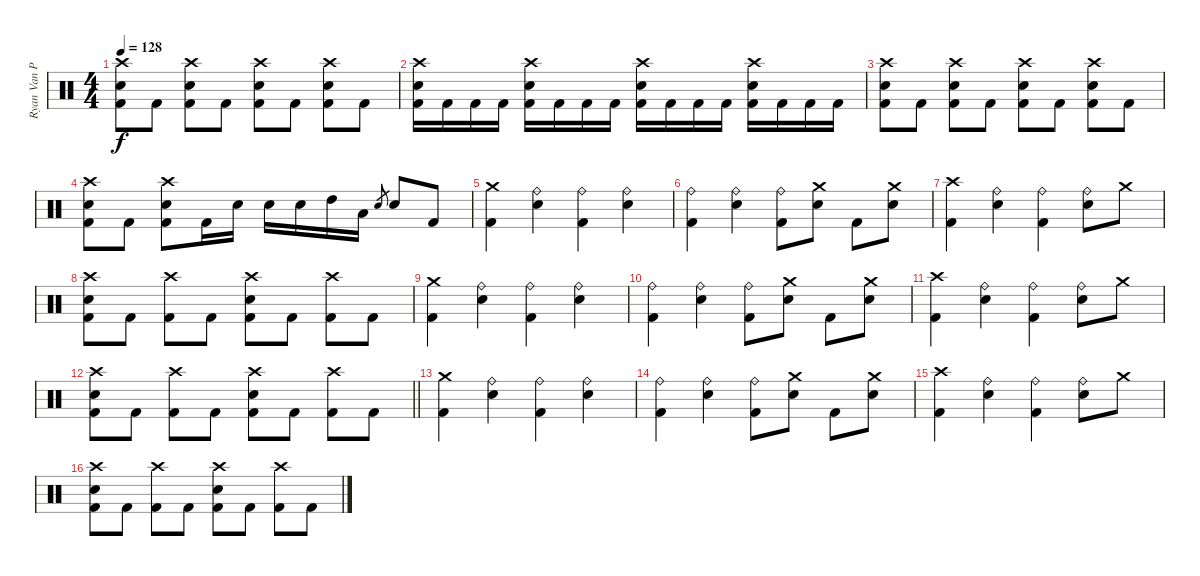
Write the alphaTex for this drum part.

\track ("Ryan Van Poederooyen" "Ryan Van P") {instrument percussion}
\staff {score}
\articulation defaults
\ts (4 4)
\tempo 128
\clef neutral
\ks c
("Crash high (hit)" "Electric Snare (hit)" "Kick (hit) 2").8{dy f} "Kick (hit) 2".8 ("Crash high (hit)" "Electric Snare (hit)" "Kick (hit) 2").8 "Kick (hit) 2".8 ("Crash high (hit)" "Electric Snare (hit)" "Kick (hit) 2").8 "Kick (hit) 2".8 ("Crash high (hit)" "Electric Snare (hit)" "Kick (hit) 2").8 "Kick (hit) 2".8 |
("Crash high (hit)" "Electric Snare (hit)" "Kick (hit) 2").16 "Kick (hit) 2".16 "Kick (hit) 2".16 "Kick (hit) 2".16 ("Crash high (hit)" "Electric Snare (hit)" "Kick (hit) 2").16 "Kick (hit) 2".16 "Kick (hit) 2".16 "Kick (hit) 2".16 ("Crash high (hit)" "Electric Snare (hit)" "Kick (hit) 2").16 "Kick (hit) 2".16 "Kick (hit) 2".16 "Kick (hit) 2".16 ("Crash high (hit)" "Electric Snare (hit)" "Kick (hit) 2").16 "Kick (hit) 2".16 "Kick (hit) 2".16 "Kick (hit) 2".16 |
("Crash high (hit)" "Electric Snare (hit)" "Kick (hit) 2").8 "Kick (hit) 2".8 ("Crash high (hit)" "Electric Snare (hit)" "Kick (hit) 2").8 "Kick (hit) 2".8 ("Crash high (hit)" "Electric Snare (hit)" "Kick (hit) 2").8 "Kick (hit) 2".8 ("Crash high (hit)" "Electric Snare (hit)" "Kick (hit) 2").8 "Kick (hit) 2".8 |
("Crash high (hit)" "Electric Snare (hit)" "Kick (hit) 2").8 "Kick (hit) 2".8 ("Crash high (hit)" "Electric Snare (hit)" "Kick (hit) 2").8 "Kick (hit) 2".16 "Electric Snare (hit)".16 "Electric Snare (hit)".16 "Electric Snare (hit)".16 "High Tom (hit)".16 "Low Tom (hit)".16 "Electric Snare (hit)".8{gr} "Electric Snare (hit)".8 "Kick (hit) 2".8 |
("Crash medium (hit)" "Kick (hit) 2").4 ("Ride (bell)" "Electric Snare (hit)").4 ("Ride (bell)" "Kick (hit) 2").4 ("Ride (bell)" "Electric Snare (hit)").4 |
("Ride (bell)" "Kick (hit) 2").4 ("Ride (bell)" "Electric Snare (hit)").4 ("Ride (bell)" "Kick (hit) 2").8 ("Crash medium (hit)" "Electric Snare (hit)").8 "Kick (hit) 2".8 ("Crash medium (hit)" "Electric Snare (hit)").8 |
("Crash high (hit)" "Kick (hit) 2").4 ("Ride (bell)" "Electric Snare (hit)").4 ("Ride (bell)" "Kick (hit) 2").4 ("Ride (bell)" "Electric Snare (hit)").8 "Crash medium (hit)".8 |
("Crash high (hit)" "Electric Snare (hit)" "Kick (hit) 2").8 "Kick (hit) 2".8 ("Crash high (hit)" "Kick (hit) 2").8 "Kick (hit) 2".8 ("Crash high (hit)" "Electric Snare (hit)" "Kick (hit) 2").8 "Kick (hit) 2".8 ("Crash high (hit)" "Kick (hit) 2").8 "Kick (hit) 2".8 |
("Crash medium (hit)" "Kick (hit) 2").4 ("Ride (bell)" "Electric Snare (hit)").4 ("Ride (bell)" "Kick (hit) 2").4 ("Ride (bell)" "Electric Snare (hit)").4 |
("Ride (bell)" "Kick (hit) 2").4 ("Ride (bell)" "Electric Snare (hit)").4 ("Ride (bell)" "Kick (hit) 2").8 ("Crash medium (hit)" "Electric Snare (hit)").8 "Kick (hit) 2".8 ("Crash medium (hit)" "Electric Snare (hit)").8 |
("Crash high (hit)" "Kick (hit) 2").4 ("Ride (bell)" "Electric Snare (hit)").4 ("Ride (bell)" "Kick (hit) 2").4 ("Ride (bell)" "Electric Snare (hit)").8 "Crash medium (hit)".8 |
\barLineRight lightlight
("Crash high (hit)" "Electric Snare (hit)" "Kick (hit) 2").8 "Kick (hit) 2".8 ("Crash high (hit)" "Kick (hit) 2").8 "Kick (hit) 2".8 ("Crash high (hit)" "Electric Snare (hit)" "Kick (hit) 2").8 "Kick (hit) 2".8 ("Crash high (hit)" "Kick (hit) 2").8 "Kick (hit) 2".8 |
("Crash medium (hit)" "Kick (hit) 2").4 ("Ride (bell)" "Electric Snare (hit)").4 ("Ride (bell)" "Kick (hit) 2").4 ("Ride (bell)" "Electric Snare (hit)").4 |
("Ride (bell)" "Kick (hit) 2").4 ("Ride (bell)" "Electric Snare (hit)").4 ("Ride (bell)" "Kick (hit) 2").8 ("Crash medium (hit)" "Electric Snare (hit)").8 "Kick (hit) 2".8 ("Crash medium (hit)" "Electric Snare (hit)").8 |
("Crash high (hit)" "Kick (hit) 2").4 ("Ride (bell)" "Electric Snare (hit)").4 ("Ride (bell)" "Kick (hit) 2").4 ("Ride (bell)" "Electric Snare (hit)").8 "Crash medium (hit)".8 |
("Crash high (hit)" "Electric Snare (hit)" "Kick (hit) 2").8 "Kick (hit) 2".8 ("Crash high (hit)" "Kick (hit) 2").8 "Kick (hit) 2".8 ("Crash high (hit)" "Electric Snare (hit)" "Kick (hit) 2").8 "Kick (hit) 2".8 ("Crash high (hit)" "Kick (hit) 2").8 "Kick (hit) 2".8
